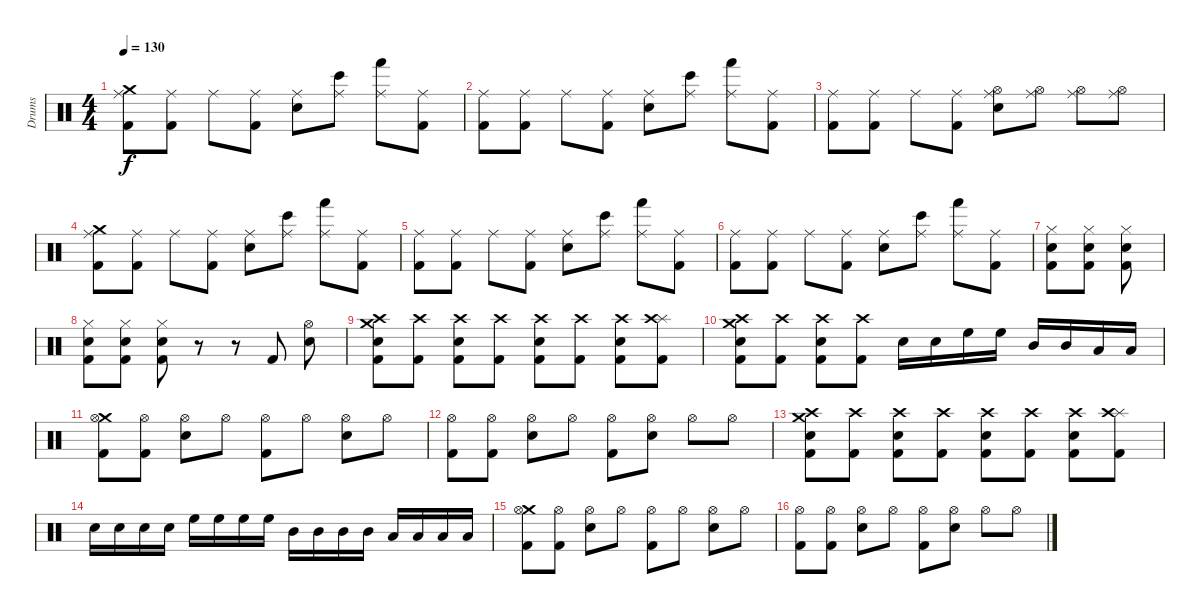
\track ("Drums" "Drums") {instrument percussion}
\staff {score}
\articulation defaults
\ts (4 4)
\tempo 130
\clef neutral
\ks c
("Crash medium (hit)" "Kick (hit) 2" "Ride (middle)").8{dy f} ("Kick (hit) 2" "Ride (middle)").8 "Ride (middle)".8 ("Kick (hit) 2" "Ride (middle)").8 ("Snare (hit) 2" "Ride (middle)").8 ("Bongo High (hit)" "Ride (middle)").8 ("Hand (hit)" "Ride (middle)").8 ("Kick (hit) 2" "Ride (middle)").8 |
("Kick (hit) 2" "Ride (middle)").8 ("Kick (hit) 2" "Ride (middle)").8 "Ride (middle)".8 ("Kick (hit) 2" "Ride (middle)").8 ("Snare (hit) 2" "Ride (middle)").8 ("Bongo High (hit)" "Ride (middle)").8 ("Hand (hit)" "Ride (middle)").8 ("Kick (hit) 2" "Ride (middle)").8 |
("Kick (hit) 2" "Ride (middle)").8 ("Kick (hit) 2" "Ride (middle)").8 "Ride (middle)".8 ("Kick (hit) 2" "Ride (middle)").8 ("Hi-Hat (open)" "Snare (hit) 2" "Ride (middle)").8 ("Hi-Hat (open)" "Ride (middle)").8 ("Hi-Hat (open)" "Ride (middle)").8 ("Hi-Hat (open)" "Ride (middle)").8 |
("Crash medium (hit)" "Kick (hit) 2" "Ride (middle)").8 ("Kick (hit) 2" "Ride (middle)").8 "Ride (middle)".8 ("Kick (hit) 2" "Ride (middle)").8 ("Snare (hit) 2" "Ride (middle)").8 ("Bongo High (hit)" "Ride (middle)").8 ("Hand (hit)" "Ride (middle)").8 ("Kick (hit) 2" "Ride (middle)").8 |
("Kick (hit) 2" "Ride (middle)").8 ("Kick (hit) 2" "Ride (middle)").8 "Ride (middle)".8 ("Kick (hit) 2" "Ride (middle)").8 ("Snare (hit) 2" "Ride (middle)").8 ("Bongo High (hit)" "Ride (middle)").8 ("Hand (hit)" "Ride (middle)").8 ("Kick (hit) 2" "Ride (middle)").8 |
("Kick (hit) 2" "Ride (middle)").8 ("Kick (hit) 2" "Ride (middle)").8 "Ride (middle)".8 ("Kick (hit) 2" "Ride (middle)").8 ("Snare (hit) 2" "Ride (middle)").8 ("Bongo High (hit)" "Ride (middle)").8 ("Hand (hit)" "Ride (middle)").8 ("Kick (hit) 2" "Ride (middle)").8 |
("Kick (hit) 2" "Snare (hit) 2" "Hi-Hat (closed)").8 ("Kick (hit) 2" "Snare (hit) 2" "Hi-Hat (closed)").8 ("Kick (hit) 2" "Snare (hit) 2" "Hi-Hat (closed)").8 |
("Kick (hit) 2" "Snare (hit) 2" "Hi-Hat (closed)").8 ("Kick (hit) 2" "Snare (hit) 2" "Hi-Hat (closed)").8 ("Kick (hit) 2" "Snare (hit) 2" "Hi-Hat (closed)").8 r.8 r.8 "Kick (hit) 2".8 ("Snare (hit) 2" "Hi-Hat (open)").8 |
("Crash medium (hit)" "Kick (hit) 2" "Snare (hit) 2" "Crash high (hit)").8 ("Kick (hit) 2" "Crash high (hit)").8 ("Kick (hit) 2" "Snare (hit) 2" "Crash high (hit)").8 ("Kick (hit) 2" "Crash high (hit)").8 ("Kick (hit) 2" "Snare (hit) 2" "Crash high (hit)").8 ("Kick (hit) 2" "Crash high (hit)").8 ("Kick (hit) 2" "Snare (hit) 2" "Crash high (hit)").8 ("Splash (hit)" "Kick (hit) 2" "Crash high (hit)").8 |
("Crash medium (hit)" "Kick (hit) 2" "Snare (hit) 2" "Crash high (hit)").8 ("Kick (hit) 2" "Crash high (hit)").8 ("Kick (hit) 2" "Snare (hit) 2" "Crash high (hit)").8 ("Kick (hit) 2" "Crash high (hit)").8 "Snare (hit) 2".16 "Snare (hit) 2".16 "High Floor Tom (hit)".16 "High Floor Tom (hit)".16 "Mid Tom (hit)".16 "Mid Tom (hit)".16 "Low Tom (hit)".16 "Low Tom (hit)".16 |
("Crash medium (hit)" "Kick (hit) 2" "Hi-Hat (open)").8 ("Kick (hit) 2" "Hi-Hat (open)").8 ("Snare (hit) 2" "Hi-Hat (open)").8 "Hi-Hat (open)".8 ("Kick (hit) 2" "Hi-Hat (open)").8 "Hi-Hat (open)".8 ("Snare (hit) 2" "Hi-Hat (open)").8 "Hi-Hat (open)".8 |
("Kick (hit) 2" "Hi-Hat (open)").8 ("Kick (hit) 2" "Hi-Hat (open)").8 ("Snare (hit) 2" "Hi-Hat (open)").8 "Hi-Hat (open)".8 ("Kick (hit) 2" "Hi-Hat (open)").8 ("Snare (hit) 2" "Hi-Hat (open)").8 "Hi-Hat (open)".8 "Hi-Hat (open)".8 |
("Crash medium (hit)" "Kick (hit) 2" "Snare (hit) 2" "Crash high (hit)").8 ("Kick (hit) 2" "Crash high (hit)").8 ("Kick (hit) 2" "Snare (hit) 2" "Crash high (hit)").8 ("Kick (hit) 2" "Crash high (hit)").8 ("Kick (hit) 2" "Snare (hit) 2" "Crash high (hit)").8 ("Kick (hit) 2" "Crash high (hit)").8 ("Kick (hit) 2" "Snare (hit) 2" "Crash high (hit)").8 ("Splash (hit)" "Kick (hit) 2" "Crash high (hit)").8 |
"Snare (hit) 2".16 "Snare (hit) 2".16 "Snare (hit) 2".16 "Snare (hit) 2".16 "High Floor Tom (hit)".16 "High Floor Tom (hit)".16 "High Floor Tom (hit)".16 "High Floor Tom (hit)".16 "Mid Tom (hit)".16 "Mid Tom (hit)".16 "Mid Tom (hit)".16 "Mid Tom (hit)".16 "Low Tom (hit)".16 "Low Tom (hit)".16 "Low Tom (hit)".16 "Low Tom (hit)".16 |
("Crash medium (hit)" "Kick (hit) 2" "Hi-Hat (open)").8 ("Kick (hit) 2" "Hi-Hat (open)").8 ("Snare (hit) 2" "Hi-Hat (open)").8 "Hi-Hat (open)".8 ("Kick (hit) 2" "Hi-Hat (open)").8 "Hi-Hat (open)".8 ("Snare (hit) 2" "Hi-Hat (open)").8 "Hi-Hat (open)".8 |
("Kick (hit) 2" "Hi-Hat (open)").8 ("Kick (hit) 2" "Hi-Hat (open)").8 ("Snare (hit) 2" "Hi-Hat (open)").8 "Hi-Hat (open)".8 ("Kick (hit) 2" "Hi-Hat (open)").8 ("Snare (hit) 2" "Hi-Hat (open)").8 "Hi-Hat (open)".8 "Hi-Hat (open)".8
